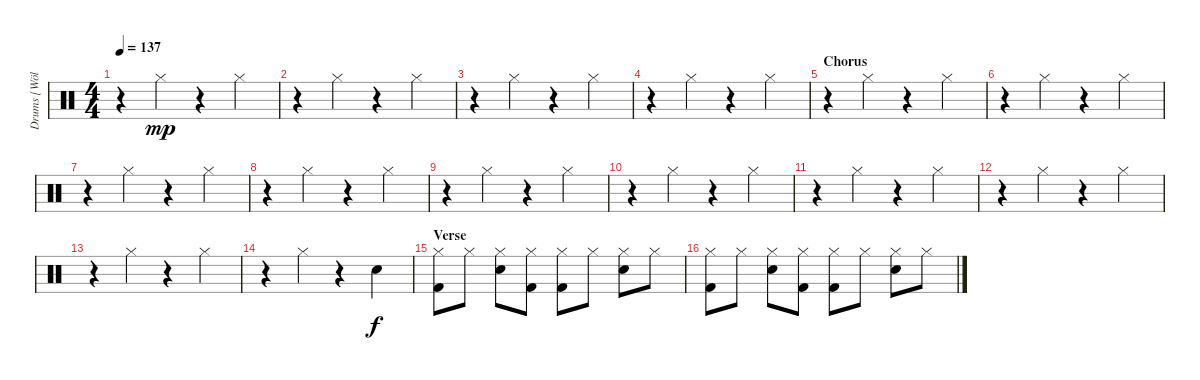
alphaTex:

\track ("Drums [Wölli]" "Drums [Wöl") {instrument percussion}
\staff {score}
\articulation defaults
\ts (4 4)
\tempo 137
\clef neutral
\ks c
r.4{dy mp} "Hi-Hat (closed)".4 r.4 "Hi-Hat (closed)".4 |
r.4 "Hi-Hat (closed)".4 r.4 "Hi-Hat (closed)".4 |
r.4 "Hi-Hat (closed)".4 r.4 "Hi-Hat (closed)".4 |
r.4 "Hi-Hat (closed)".4 r.4 "Hi-Hat (closed)".4 |
\section ("" "Chorus")
r.4 "Hi-Hat (closed)".4 r.4 "Hi-Hat (closed)".4 |
r.4 "Hi-Hat (closed)".4 r.4 "Hi-Hat (closed)".4 |
r.4 "Hi-Hat (closed)".4 r.4 "Hi-Hat (closed)".4 |
r.4 "Hi-Hat (closed)".4 r.4 "Hi-Hat (closed)".4 |
r.4 "Hi-Hat (closed)".4 r.4 "Hi-Hat (closed)".4 |
r.4 "Hi-Hat (closed)".4 r.4 "Hi-Hat (closed)".4 |
r.4 "Hi-Hat (closed)".4 r.4 "Hi-Hat (closed)".4 |
r.4 "Hi-Hat (closed)".4 r.4 "Hi-Hat (closed)".4 |
r.4 "Hi-Hat (closed)".4 r.4 "Hi-Hat (closed)".4 |
r.4 "Hi-Hat (closed)".4 r.4 "Snare (hit) 2".4{dy f} |
\section ("" "Verse")
("Hi-Hat (closed)" "Kick (hit) 2").8 "Hi-Hat (closed)".8 ("Hi-Hat (closed)" "Snare (hit) 2").8 ("Hi-Hat (closed)" "Kick (hit) 2").8 ("Hi-Hat (closed)" "Kick (hit) 2").8 "Hi-Hat (closed)".8 ("Hi-Hat (closed)" "Snare (hit) 2").8 "Hi-Hat (closed)".8 |
("Hi-Hat (closed)" "Kick (hit) 2").8 "Hi-Hat (closed)".8 ("Hi-Hat (closed)" "Snare (hit) 2").8 ("Hi-Hat (closed)" "Kick (hit) 2").8 ("Hi-Hat (closed)" "Kick (hit) 2").8 "Hi-Hat (closed)".8 ("Hi-Hat (closed)" "Snare (hit) 2").8 "Hi-Hat (closed)".8
